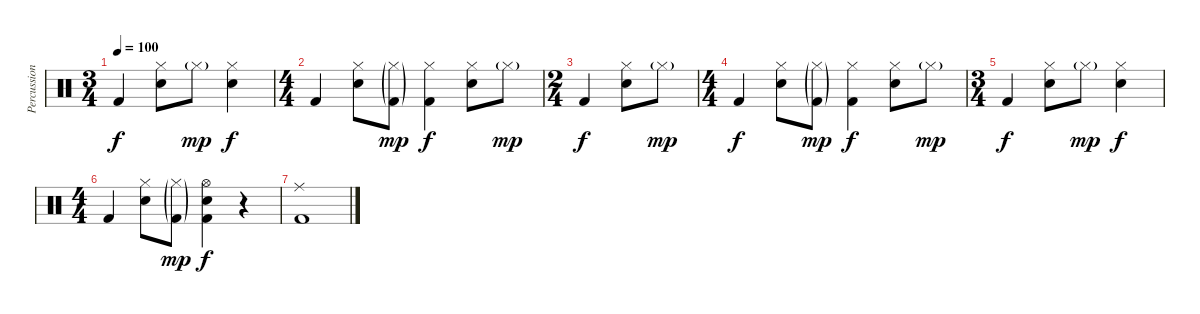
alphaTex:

\track ("Percussion" "Percussion") {instrument percussion}
\staff {score}
\articulation defaults
\ts (3 4)
\tempo 100
\clef neutral
\ks c "Kick (hit) 2".4{dy f}
("Hi-Hat (closed)" "Snare (hit) 2").8 "Hi-Hat (closed)"{g}.8{dy mp} ("Hi-Hat (closed)" "Snare (hit) 2").4{dy f} |
\ts (4 4)
"Kick (hit) 2".4 ("Hi-Hat (closed)" "Snare (hit) 2").8 ("Hi-Hat (closed)"{g} "Kick (hit) 2"{g}).8{dy mp} ("Hi-Hat (closed)" "Kick (hit) 2").4{dy f} ("Hi-Hat (closed)" "Snare (hit) 2").8 "Hi-Hat (closed)"{g}.8{dy mp} |
\ts (2 4)
"Kick (hit) 2".4{dy f} ("Hi-Hat (closed)" "Snare (hit) 2").8 "Hi-Hat (closed)"{g}.8{dy mp} |
\ts (4 4)
"Kick (hit) 2".4{dy f} ("Hi-Hat (closed)" "Snare (hit) 2").8 ("Hi-Hat (closed)"{g} "Kick (hit) 2"{g}).8{dy mp} ("Hi-Hat (closed)" "Kick (hit) 2").4{dy f} ("Hi-Hat (closed)" "Snare (hit) 2").8 "Hi-Hat (closed)"{g}.8{dy mp} |
\ts (3 4)
"Kick (hit) 2".4{dy f} ("Hi-Hat (closed)" "Snare (hit) 2").8 "Hi-Hat (closed)"{g}.8{dy mp} ("Hi-Hat (closed)" "Snare (hit) 2").4{dy f} |
\ts (4 4)
"Kick (hit) 2".4 ("Hi-Hat (closed)" "Snare (hit) 2").8 ("Hi-Hat (closed)"{g} "Kick (hit) 2"{g}).8{dy mp} ("Hi-Hat (open)" "Snare (hit) 2" "Kick (hit) 2").4{dy f} r.4 |
("Ride (middle)" "Kick (hit) 2").1
